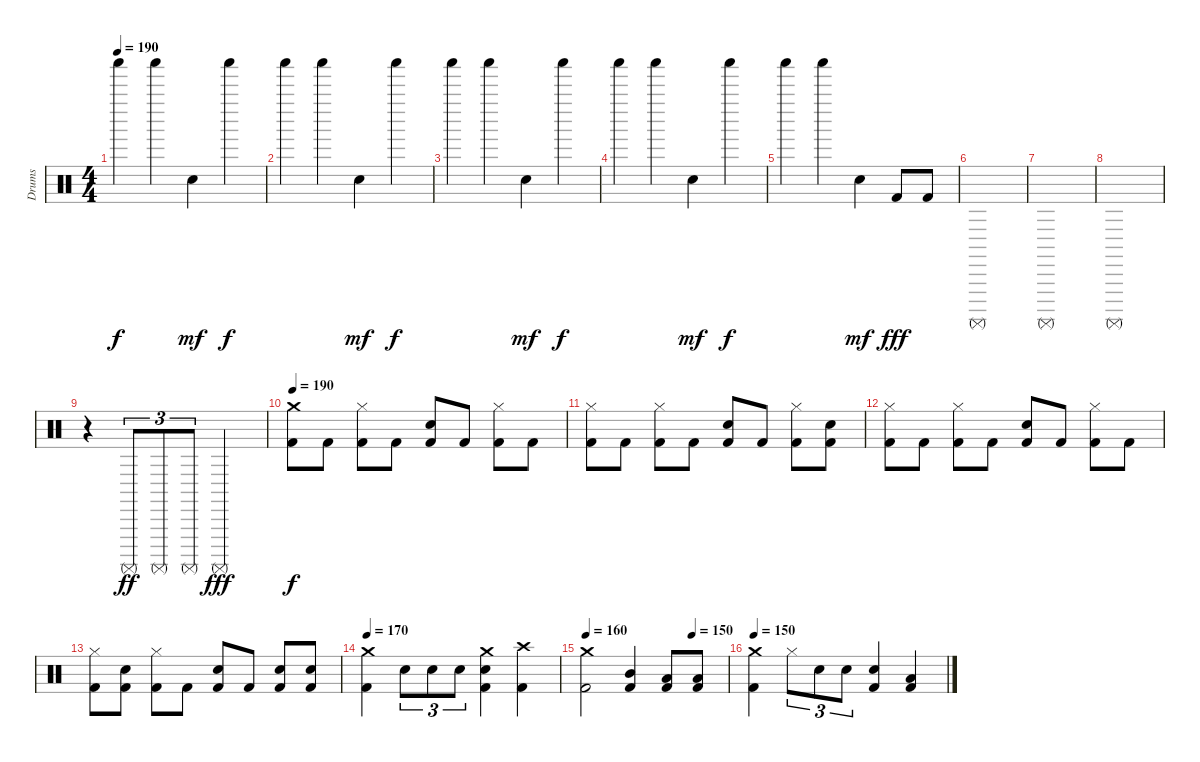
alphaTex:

\track ("Drums" "Drums") {instrument percussion}
\staff {score}
\articulation defaults
\ts (4 4)
\tempo 190
\clef neutral
\ks c "Shaker (hit)".4{dy f} "Shaker (hit)".4 "Electric Snare (hit)".4{dy mf} "Shaker (hit)".4{dy f}
|
"Shaker (hit)".4 "Shaker (hit)".4 "Electric Snare (hit)".4{dy mf} "Shaker (hit)".4{dy f} |
"Shaker (hit)".4 "Shaker (hit)".4 "Electric Snare (hit)".4{dy mf} "Shaker (hit)".4{dy f} |
"Shaker (hit)".4 "Shaker (hit)".4 "Electric Snare (hit)".4{dy mf} "Shaker (hit)".4{dy f} |
"Shaker (hit)".4 "Shaker (hit)".4 "Electric Snare (hit)".4{dy mf} "Kick (hit) 2".8{dy fff} "Kick (hit) 2".8 |
"Surdo (mute)".1{volume 16 balance 16} |
"Surdo (mute)".1 |
"Surdo (mute)".1 |
r.4 "Surdo (mute)".8{tu (3 2) dy ff} "Surdo (mute)".8{tu (3 2)} "Surdo (mute)".8{tu (3 2)} "Surdo (mute)".2{dy fff} |
\tempo 190
("Crash medium (hit)" "Kick (hit) 2").8{dy f volume 13 balance 8} "Kick (hit) 2".8 ("Hi-Hat (closed)" "Kick (hit) 2").8 "Kick (hit) 2".8 ("Electric Snare (hit)" "Kick (hit) 2").8 "Kick (hit) 2".8 ("Hi-Hat (closed)" "Kick (hit) 2").8 "Kick (hit) 2".8 |
("Hi-Hat (closed)" "Kick (hit) 2").8 "Kick (hit) 2".8 ("Hi-Hat (closed)" "Kick (hit) 2").8 "Kick (hit) 2".8 ("Electric Snare (hit)" "Kick (hit) 2").8 "Kick (hit) 2".8 ("Hi-Hat (closed)" "Kick (hit) 2").8 ("Electric Snare (hit)" "Kick (hit) 2").8 |
("Hi-Hat (closed)" "Kick (hit) 2").8 "Kick (hit) 2".8 ("Hi-Hat (closed)" "Kick (hit) 2").8 "Kick (hit) 2".8 ("Electric Snare (hit)" "Kick (hit) 2").8 "Kick (hit) 2".8 ("Hi-Hat (closed)" "Kick (hit) 2").8 "Kick (hit) 2".8 |
("Hi-Hat (closed)" "Kick (hit) 2").8 ("Electric Snare (hit)" "Kick (hit) 2").8 ("Hi-Hat (closed)" "Kick (hit) 2").8 "Kick (hit) 2".8 ("Electric Snare (hit)" "Kick (hit) 2").8 "Kick (hit) 2".8 ("Electric Snare (hit)" "Kick (hit) 2").8 ("Electric Snare (hit)" "Kick (hit) 2").8 |
\tempo 170
("Crash medium (hit)" "Kick (hit) 2").4 "Electric Snare (hit)".8{tu (3 2)} "Electric Snare (hit)".8{tu (3 2)} "Electric Snare (hit)".8{tu (3 2)} ("Crash medium (hit)" "Electric Snare (hit)" "Kick (hit) 2").4 ("Crash high (hit)" "Kick (hit) 2").4 |
\tempo 160
\tempo (150 0.75)
("Crash medium (hit)" "Kick (hit) 2").2 ("Mid Tom (hit)" "Kick (hit) 2").4 ("Low Tom (hit)" "Kick (hit) 2").8 ("Low Tom (hit)" "Kick (hit) 2").8 |
\tempo 150
("Crash medium (hit)" "Kick (hit) 2").4 "Hi-Hat (closed)".8{tu (3 2)} "Electric Snare (hit)".8{tu (3 2)} "Electric Snare (hit)".8{tu (3 2)} ("Electric Snare (hit)" "Kick (hit) 2").4 ("Low Tom (hit)" "Kick (hit) 2").4
